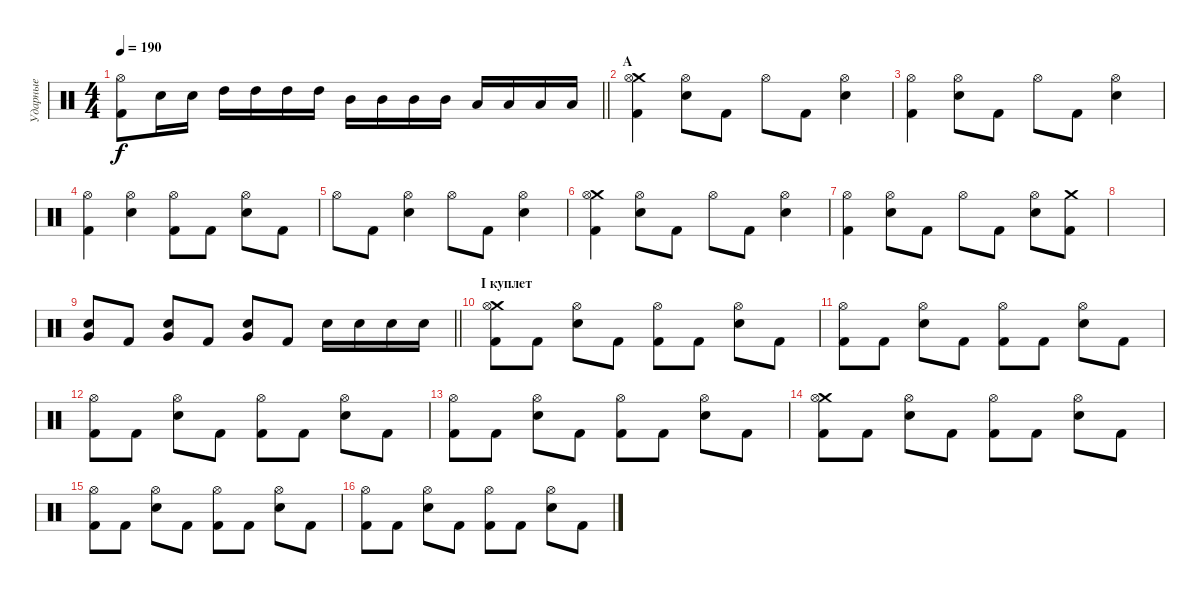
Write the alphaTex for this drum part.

\track ("Ударные" "Ударные") {instrument percussion}
\staff {score}
\articulation defaults
\ts (4 4)
\tempo 190
\clef neutral
\barLineRight lightlight
\ks c
("Kick (hit) 2" "Hi-Hat (open)").8{dy f} "Electric Snare (hit)".16 "Electric Snare (hit)".16 "High Tom (hit)".16 "High Tom (hit)".16 "High Tom (hit)".16 "High Tom (hit)".16 "Mid Tom (hit)".16 "Mid Tom (hit)".16 "Mid Tom (hit)".16 "Mid Tom (hit)".16 "Low Tom (hit)".16 "Low Tom (hit)".16 "Low Tom (hit)".16 "Low Tom (hit)".16 |
\section ("" "A")
("Crash medium (hit)" "Kick (hit) 2" "Hi-Hat (open)").4 ("Electric Snare (hit)" "Hi-Hat (open)").8 "Kick (hit) 2".8 "Hi-Hat (open)".8 "Kick (hit) 2".8 ("Electric Snare (hit)" "Hi-Hat (open)").4 |
("Kick (hit) 2" "Hi-Hat (open)").4 ("Electric Snare (hit)" "Hi-Hat (open)").8 "Kick (hit) 2".8 "Hi-Hat (open)".8 "Kick (hit) 2".8 ("Electric Snare (hit)" "Hi-Hat (open)").4 |
("Kick (hit) 2" "Hi-Hat (open)").4 ("Electric Snare (hit)" "Hi-Hat (open)").4 ("Kick (hit) 2" "Hi-Hat (open)").8 "Kick (hit) 2".8 ("Electric Snare (hit)" "Hi-Hat (open)").8 "Kick (hit) 2".8 |
"Hi-Hat (open)".8 "Kick (hit) 2".8 ("Electric Snare (hit)" "Hi-Hat (open)").4 "Hi-Hat (open)".8 "Kick (hit) 2".8 ("Electric Snare (hit)" "Hi-Hat (open)").4 |
("Crash medium (hit)" "Kick (hit) 2" "Hi-Hat (open)").4 ("Electric Snare (hit)" "Hi-Hat (open)").8 "Kick (hit) 2".8 "Hi-Hat (open)".8 "Kick (hit) 2".8 ("Electric Snare (hit)" "Hi-Hat (open)").4 |
("Kick (hit) 2" "Hi-Hat (open)").4 ("Electric Snare (hit)" "Hi-Hat (open)").8 "Kick (hit) 2".8 "Hi-Hat (open)".8 "Kick (hit) 2".8 ("Electric Snare (hit)" "Hi-Hat (open)").8 ("Crash medium (hit)" "Kick (hit) 2").8 |
|
\barLineRight lightlight
("Electric Snare (hit)" "Very Low Tom (hit)").8 "Kick (hit) 2".8 ("Electric Snare (hit)" "Very Low Tom (hit)").8 "Kick (hit) 2".8 ("Electric Snare (hit)" "Very Low Tom (hit)").8 "Kick (hit) 2".8 "Electric Snare (hit)".16 "Electric Snare (hit)".16 "Electric Snare (hit)".16 "Electric Snare (hit)".16 |
\section ("" "I куплет")
("Crash medium (hit)" "Kick (hit) 2" "Hi-Hat (open)").8 "Kick (hit) 2".8 ("Electric Snare (hit)" "Hi-Hat (open)").8 "Kick (hit) 2".8 ("Kick (hit) 2" "Hi-Hat (open)").8 "Kick (hit) 2".8 ("Electric Snare (hit)" "Hi-Hat (open)").8 "Kick (hit) 2".8 |
("Kick (hit) 2" "Hi-Hat (open)").8 "Kick (hit) 2".8 ("Electric Snare (hit)" "Hi-Hat (open)").8 "Kick (hit) 2".8 ("Kick (hit) 2" "Hi-Hat (open)").8 "Kick (hit) 2".8 ("Electric Snare (hit)" "Hi-Hat (open)").8 "Kick (hit) 2".8 |
("Kick (hit) 2" "Hi-Hat (open)").8 "Kick (hit) 2".8 ("Electric Snare (hit)" "Hi-Hat (open)").8 "Kick (hit) 2".8 ("Kick (hit) 2" "Hi-Hat (open)").8 "Kick (hit) 2".8 ("Electric Snare (hit)" "Hi-Hat (open)").8 "Kick (hit) 2".8 |
("Kick (hit) 2" "Hi-Hat (open)").8 "Kick (hit) 2".8 ("Electric Snare (hit)" "Hi-Hat (open)").8 "Kick (hit) 2".8 ("Kick (hit) 2" "Hi-Hat (open)").8 "Kick (hit) 2".8 ("Electric Snare (hit)" "Hi-Hat (open)").8 "Kick (hit) 2".8 |
("Crash medium (hit)" "Kick (hit) 2" "Hi-Hat (open)").8 "Kick (hit) 2".8 ("Electric Snare (hit)" "Hi-Hat (open)").8 "Kick (hit) 2".8 ("Kick (hit) 2" "Hi-Hat (open)").8 "Kick (hit) 2".8 ("Electric Snare (hit)" "Hi-Hat (open)").8 "Kick (hit) 2".8 |
("Kick (hit) 2" "Hi-Hat (open)").8 "Kick (hit) 2".8 ("Electric Snare (hit)" "Hi-Hat (open)").8 "Kick (hit) 2".8 ("Kick (hit) 2" "Hi-Hat (open)").8 "Kick (hit) 2".8 ("Electric Snare (hit)" "Hi-Hat (open)").8 "Kick (hit) 2".8 |
("Kick (hit) 2" "Hi-Hat (open)").8 "Kick (hit) 2".8 ("Electric Snare (hit)" "Hi-Hat (open)").8 "Kick (hit) 2".8 ("Kick (hit) 2" "Hi-Hat (open)").8 "Kick (hit) 2".8 ("Electric Snare (hit)" "Hi-Hat (open)").8 "Kick (hit) 2".8
